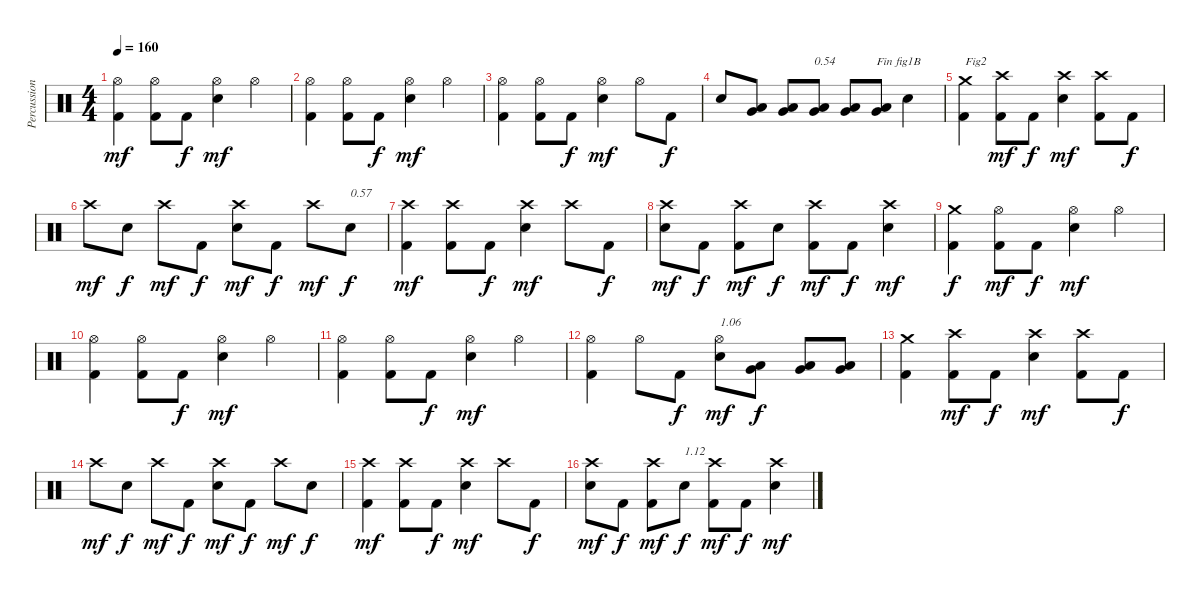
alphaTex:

\track ("Percussions" "Percussion") {instrument percussion}
\staff {score}
\articulation defaults
\ts (4 4)
\tempo 160
\clef neutral
\ks c
("Kick (hit) 2" "Hi-Hat (open)").4{dy mf} ("Kick (hit) 2" "Hi-Hat (open)").8 "Kick (hit) 2".8{dy f} ("Electric Snare (hit)" "Hi-Hat (open)").4{dy mf} "Hi-Hat (open)".4 |
("Kick (hit) 2" "Hi-Hat (open)").4 ("Kick (hit) 2" "Hi-Hat (open)").8 "Kick (hit) 2".8{dy f} ("Electric Snare (hit)" "Hi-Hat (open)").4{dy mf} "Hi-Hat (open)".4 |
("Kick (hit) 2" "Hi-Hat (open)").4 ("Kick (hit) 2" "Hi-Hat (open)").8 "Kick (hit) 2".8{dy f} ("Electric Snare (hit)" "Hi-Hat (open)").4{dy mf} "Hi-Hat (open)".8 "Kick (hit) 2".8{dy f} |
"Electric Snare (hit)".8 ("Very Low Tom (hit)" "Low Floor Tom (hit)").8 ("Very Low Tom (hit)" "Low Floor Tom (hit)").8 ("Very Low Tom (hit)" "Low Floor Tom (hit)").8{txt "0.54"} ("Very Low Tom (hit)" "Low Floor Tom (hit)").8 ("Very Low Tom (hit)" "Low Floor Tom (hit)").8{txt "Fin fig1B"} "Electric Snare (hit)".4 |
("Kick (hit) 2" "Crash medium (hit)").4{txt "Fig2"} ("Kick (hit) 2" "Crash high (hit)").8{dy mf} "Kick (hit) 2".8{dy f} ("Electric Snare (hit)" "Crash high (hit)").4{dy mf} ("Kick (hit) 2" "Crash high (hit)").8 "Kick (hit) 2".8{dy f} |
"Crash high (hit)".8{dy mf} "Electric Snare (hit)".8{dy f} "Crash high (hit)".8{dy mf} "Kick (hit) 2".8{dy f} ("Electric Snare (hit)" "Crash high (hit)").8{dy mf} "Kick (hit) 2".8{dy f} "Crash high (hit)".8{dy mf} "Electric Snare (hit)".8{txt "0.57" dy f} |
("Kick (hit) 2" "Crash high (hit)").4{dy mf} ("Kick (hit) 2" "Crash high (hit)").8 "Kick (hit) 2".8{dy f} ("Electric Snare (hit)" "Crash high (hit)").4{dy mf} "Crash high (hit)".8 "Kick (hit) 2".8{dy f} |
("Electric Snare (hit)" "Crash high (hit)").8{dy mf} "Kick (hit) 2".8{dy f} ("Kick (hit) 2" "Crash high (hit)").8{dy mf} "Electric Snare (hit)".8{dy f} ("Kick (hit) 2" "Crash high (hit)").8{dy mf} "Kick (hit) 2".8{dy f} ("Electric Snare (hit)" "Crash high (hit)").4{dy mf} |
("Kick (hit) 2" "Crash medium (hit)").4{dy f} ("Kick (hit) 2" "Hi-Hat (open)").8{dy mf} "Kick (hit) 2".8{dy f} ("Electric Snare (hit)" "Hi-Hat (open)").4{dy mf} "Hi-Hat (open)".4 |
("Kick (hit) 2" "Hi-Hat (open)").4 ("Kick (hit) 2" "Hi-Hat (open)").8 "Kick (hit) 2".8{dy f} ("Electric Snare (hit)" "Hi-Hat (open)").4{dy mf} "Hi-Hat (open)".4 |
("Kick (hit) 2" "Hi-Hat (open)").4 ("Kick (hit) 2" "Hi-Hat (open)").8 "Kick (hit) 2".8{dy f} ("Electric Snare (hit)" "Hi-Hat (open)").4{dy mf} "Hi-Hat (open)".4 |
("Kick (hit) 2" "Hi-Hat (open)").4 "Hi-Hat (open)".8 "Kick (hit) 2".8{dy f} ("Electric Snare (hit)" "Hi-Hat (open)").8{txt "1.06" dy mf} ("Very Low Tom (hit)" "Low Floor Tom (hit)").8{dy f} ("Very Low Tom (hit)" "Low Floor Tom (hit)").8 ("Very Low Tom (hit)" "Low Floor Tom (hit)").8 |
("Kick (hit) 2" "Crash medium (hit)").4 ("Kick (hit) 2" "Crash high (hit)").8{dy mf} "Kick (hit) 2".8{dy f} ("Electric Snare (hit)" "Crash high (hit)").4{dy mf} ("Kick (hit) 2" "Crash high (hit)").8 "Kick (hit) 2".8{dy f} |
"Crash high (hit)".8{dy mf} "Electric Snare (hit)".8{dy f} "Crash high (hit)".8{dy mf} "Kick (hit) 2".8{dy f} ("Electric Snare (hit)" "Crash high (hit)").8{dy mf} "Kick (hit) 2".8{dy f} "Crash high (hit)".8{dy mf} "Electric Snare (hit)".8{dy f} |
("Kick (hit) 2" "Crash high (hit)").4{dy mf} ("Kick (hit) 2" "Crash high (hit)").8 "Kick (hit) 2".8{dy f} ("Electric Snare (hit)" "Crash high (hit)").4{dy mf} "Crash high (hit)".8 "Kick (hit) 2".8{dy f} |
("Electric Snare (hit)" "Crash high (hit)").8{dy mf} "Kick (hit) 2".8{dy f} ("Kick (hit) 2" "Crash high (hit)").8{dy mf} "Electric Snare (hit)".8{txt "1.12" dy f} ("Kick (hit) 2" "Crash high (hit)").8{dy mf} "Kick (hit) 2".8{dy f} ("Electric Snare (hit)" "Crash high (hit)").4{dy mf}
